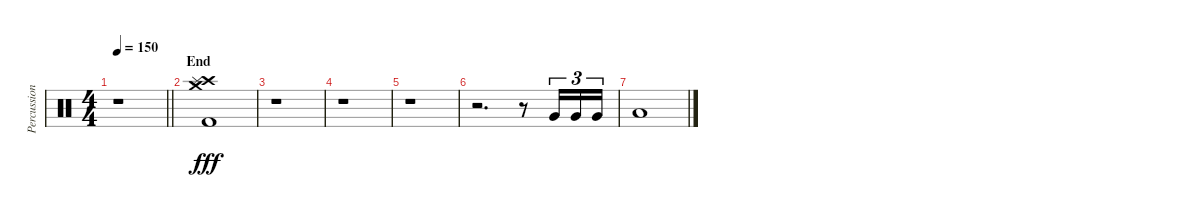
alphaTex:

\track ("Percussion" "Percussion") {instrument percussion}
\staff {score}
\articulation defaults
\ts (4 4)
\tempo 150
\clef neutral
\barLineRight lightlight
\ks c
r.1{dy fff} |
\section ("" "End")
("Kick (hit) 2" "Crash high (hit)" "Crash medium (hit)" "Splash (hit)").1 |
r.1 |
r.1 |
r.1 |
r.2{d} r.8 "Very Low Tom (hit)".16{tu (3 2)} "Very Low Tom (hit)".16{tu (3 2)} "Very Low Tom (hit)".16{tu (3 2)} |
"Low Floor Tom (hit)".1
